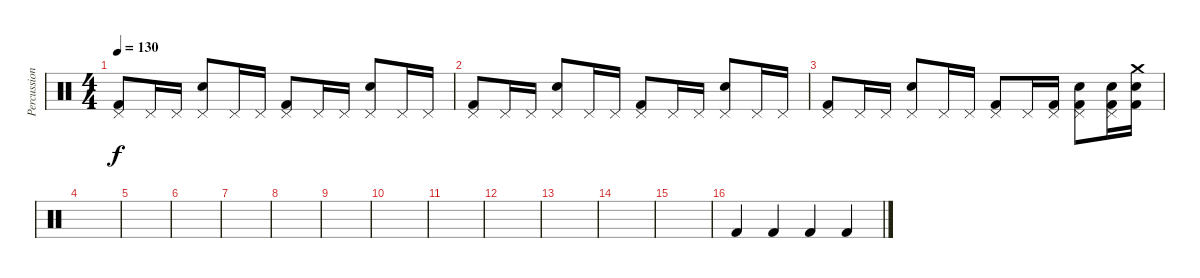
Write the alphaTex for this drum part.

\track ("Percussion" "Percussion") {instrument percussion}
\staff {score}
\articulation defaults
\ts (4 4)
\tempo 130
\clef neutral
\ks c
("Pedal Hi-Hat (hit)" "Kick (hit) 2").8{dy f} "Pedal Hi-Hat (hit)".16 "Pedal Hi-Hat (hit)".16 ("Pedal Hi-Hat (hit)" "Snare (hit) 2").8 "Pedal Hi-Hat (hit)".16 "Pedal Hi-Hat (hit)".16 ("Pedal Hi-Hat (hit)" "Kick (hit) 2").8 "Pedal Hi-Hat (hit)".16 "Pedal Hi-Hat (hit)".16 ("Pedal Hi-Hat (hit)" "Snare (hit) 2").8 "Pedal Hi-Hat (hit)".16 "Pedal Hi-Hat (hit)".16 |
("Pedal Hi-Hat (hit)" "Kick (hit) 2").8 "Pedal Hi-Hat (hit)".16 "Pedal Hi-Hat (hit)".16 ("Pedal Hi-Hat (hit)" "Snare (hit) 2").8 "Pedal Hi-Hat (hit)".16 "Pedal Hi-Hat (hit)".16 ("Pedal Hi-Hat (hit)" "Kick (hit) 2").8 "Pedal Hi-Hat (hit)".16 "Pedal Hi-Hat (hit)".16 ("Pedal Hi-Hat (hit)" "Snare (hit) 2").8 "Pedal Hi-Hat (hit)".16 "Pedal Hi-Hat (hit)".16 |
("Pedal Hi-Hat (hit)" "Kick (hit) 2").8 "Pedal Hi-Hat (hit)".16 "Pedal Hi-Hat (hit)".16 ("Pedal Hi-Hat (hit)" "Snare (hit) 2").8 "Pedal Hi-Hat (hit)".16 "Pedal Hi-Hat (hit)".16 ("Pedal Hi-Hat (hit)" "Kick (hit) 2").8 "Pedal Hi-Hat (hit)".16 ("Pedal Hi-Hat (hit)" "Kick (hit) 2").16 ("Pedal Hi-Hat (hit)" "Snare (hit) 2" "Kick (hit) 2").8 ("Pedal Hi-Hat (hit)" "Snare (hit) 2" "Kick (hit) 2").16 ("Crash medium (hit)" "Snare (hit) 2" "Kick (hit) 2").16 |
|
|
|
|
|
|
|
|
|
|
|
|
"Kick (hit) 2".4 "Kick (hit) 2".4 "Kick (hit) 2".4 "Kick (hit) 2".4
